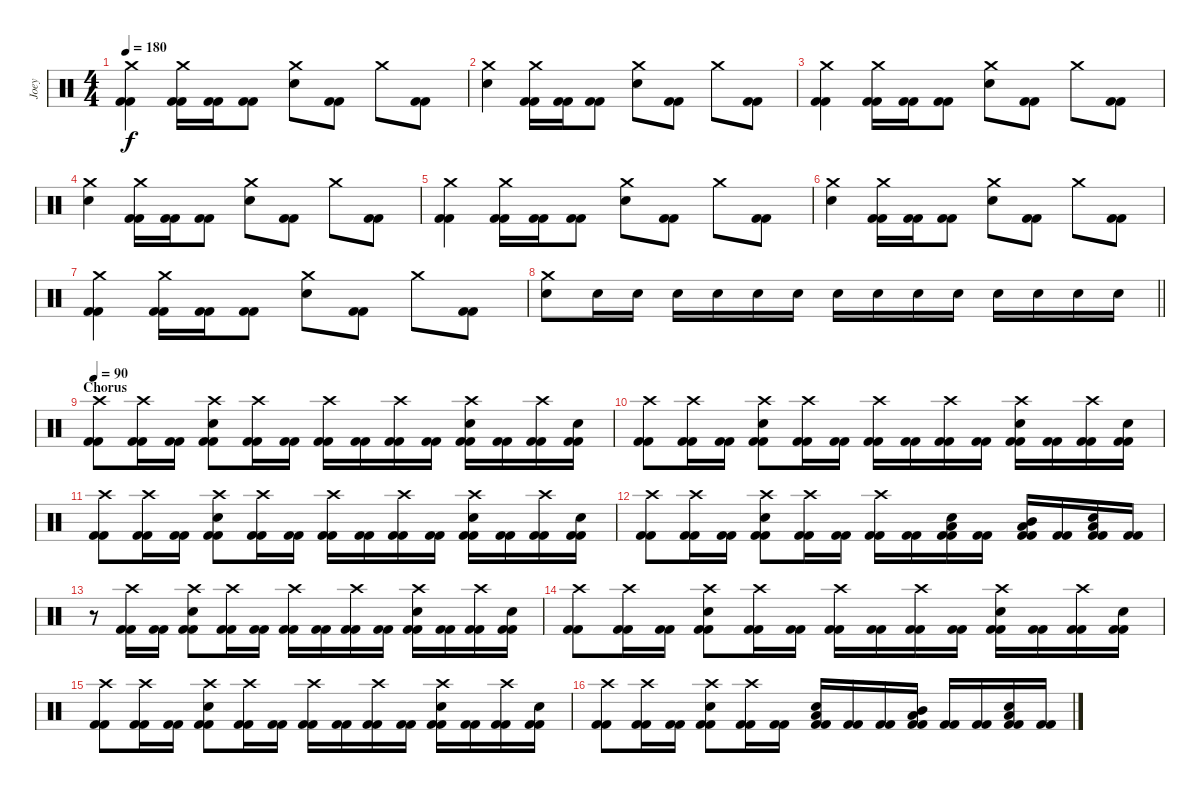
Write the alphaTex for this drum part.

\track ("Joey" "Joey") {instrument percussion}
\staff {score}
\articulation defaults
\ts (4 4)
\tempo 180
\clef neutral
\ks c
("Crash medium (hit)" "Kick (hit) 2" "Kick (hit) 2").4{dy f} ("Crash medium (hit)" "Kick (hit) 2" "Kick (hit) 2").16 ("Kick (hit) 2" "Kick (hit) 2").16 ("Kick (hit) 2" "Kick (hit) 2").8 ("Electric Snare (hit)" "Crash medium (hit)").8 ("Kick (hit) 2" "Kick (hit) 2").8 "Crash medium (hit)".8 ("Kick (hit) 2" "Kick (hit) 2").8 |
("Electric Snare (hit)" "Crash medium (hit)").4 ("Crash medium (hit)" "Kick (hit) 2" "Kick (hit) 2").16 ("Kick (hit) 2" "Kick (hit) 2").16 ("Kick (hit) 2" "Kick (hit) 2").8 ("Electric Snare (hit)" "Crash medium (hit)").8 ("Kick (hit) 2" "Kick (hit) 2").8 "Crash medium (hit)".8 ("Kick (hit) 2" "Kick (hit) 2").8 |
("Crash medium (hit)" "Kick (hit) 2" "Kick (hit) 2").4 ("Crash medium (hit)" "Kick (hit) 2" "Kick (hit) 2").16 ("Kick (hit) 2" "Kick (hit) 2").16 ("Kick (hit) 2" "Kick (hit) 2").8 ("Electric Snare (hit)" "Crash medium (hit)").8 ("Kick (hit) 2" "Kick (hit) 2").8 "Crash medium (hit)".8 ("Kick (hit) 2" "Kick (hit) 2").8 |
("Electric Snare (hit)" "Crash medium (hit)").4 ("Crash medium (hit)" "Kick (hit) 2" "Kick (hit) 2").16 ("Kick (hit) 2" "Kick (hit) 2").16 ("Kick (hit) 2" "Kick (hit) 2").8 ("Electric Snare (hit)" "Crash medium (hit)").8 ("Kick (hit) 2" "Kick (hit) 2").8 "Crash medium (hit)".8 ("Kick (hit) 2" "Kick (hit) 2").8 |
("Crash medium (hit)" "Kick (hit) 2" "Kick (hit) 2").4 ("Crash medium (hit)" "Kick (hit) 2" "Kick (hit) 2").16 ("Kick (hit) 2" "Kick (hit) 2").16 ("Kick (hit) 2" "Kick (hit) 2").8 ("Electric Snare (hit)" "Crash medium (hit)").8 ("Kick (hit) 2" "Kick (hit) 2").8 "Crash medium (hit)".8 ("Kick (hit) 2" "Kick (hit) 2").8 |
("Electric Snare (hit)" "Crash medium (hit)").4 ("Crash medium (hit)" "Kick (hit) 2" "Kick (hit) 2").16 ("Kick (hit) 2" "Kick (hit) 2").16 ("Kick (hit) 2" "Kick (hit) 2").8 ("Electric Snare (hit)" "Crash medium (hit)").8 ("Kick (hit) 2" "Kick (hit) 2").8 "Crash medium (hit)".8 ("Kick (hit) 2" "Kick (hit) 2").8 |
("Crash medium (hit)" "Kick (hit) 2" "Kick (hit) 2").4 ("Crash medium (hit)" "Kick (hit) 2" "Kick (hit) 2").16 ("Kick (hit) 2" "Kick (hit) 2").16 ("Kick (hit) 2" "Kick (hit) 2").8 ("Electric Snare (hit)" "Crash medium (hit)").8 ("Kick (hit) 2" "Kick (hit) 2").8 "Crash medium (hit)".8 ("Kick (hit) 2" "Kick (hit) 2").8 |
\barLineRight lightlight
("Electric Snare (hit)" "Crash medium (hit)").8 "Electric Snare (hit)".16 "Electric Snare (hit)".16 "Electric Snare (hit)".16 "Electric Snare (hit)".16 "Electric Snare (hit)".16 "Electric Snare (hit)".16 "Electric Snare (hit)".16 "Electric Snare (hit)".16 "Electric Snare (hit)".16 "Electric Snare (hit)".16 "Electric Snare (hit)".16 "Electric Snare (hit)".16 "Electric Snare (hit)".16 "Electric Snare (hit)".16 |
\section ("" "Chorus")
\tempo 90
("Crash high (hit)" "Kick (hit) 2" "Kick (hit) 2").8 ("Crash high (hit)" "Kick (hit) 2" "Kick (hit) 2").16 ("Kick (hit) 2" "Kick (hit) 2").16 ("Electric Snare (hit)" "Crash high (hit)" "Kick (hit) 2" "Kick (hit) 2").8 ("Crash high (hit)" "Kick (hit) 2" "Kick (hit) 2").16 ("Kick (hit) 2" "Kick (hit) 2").16 ("Crash high (hit)" "Kick (hit) 2" "Kick (hit) 2").16 ("Kick (hit) 2" "Kick (hit) 2").16 ("Crash high (hit)" "Kick (hit) 2" "Kick (hit) 2").16 ("Kick (hit) 2" "Kick (hit) 2").16 ("Electric Snare (hit)" "Crash high (hit)" "Kick (hit) 2" "Kick (hit) 2").16 ("Kick (hit) 2" "Kick (hit) 2").16 ("Crash high (hit)" "Kick (hit) 2" "Kick (hit) 2").16 ("Electric Snare (hit)" "Kick (hit) 2" "Kick (hit) 2").16 |
("Crash high (hit)" "Kick (hit) 2" "Kick (hit) 2").8 ("Crash high (hit)" "Kick (hit) 2" "Kick (hit) 2").16 ("Kick (hit) 2" "Kick (hit) 2").16 ("Electric Snare (hit)" "Crash high (hit)" "Kick (hit) 2" "Kick (hit) 2").8 ("Crash high (hit)" "Kick (hit) 2" "Kick (hit) 2").16 ("Kick (hit) 2" "Kick (hit) 2").16 ("Crash high (hit)" "Kick (hit) 2" "Kick (hit) 2").16 ("Kick (hit) 2" "Kick (hit) 2").16 ("Crash high (hit)" "Kick (hit) 2" "Kick (hit) 2").16 ("Kick (hit) 2" "Kick (hit) 2").16 ("Electric Snare (hit)" "Crash high (hit)" "Kick (hit) 2" "Kick (hit) 2").16 ("Kick (hit) 2" "Kick (hit) 2").16 ("Crash high (hit)" "Kick (hit) 2" "Kick (hit) 2").16 ("Electric Snare (hit)" "Kick (hit) 2" "Kick (hit) 2").16 |
("Crash high (hit)" "Kick (hit) 2" "Kick (hit) 2").8 ("Crash high (hit)" "Kick (hit) 2" "Kick (hit) 2").16 ("Kick (hit) 2" "Kick (hit) 2").16 ("Electric Snare (hit)" "Crash high (hit)" "Kick (hit) 2" "Kick (hit) 2").8 ("Crash high (hit)" "Kick (hit) 2" "Kick (hit) 2").16 ("Kick (hit) 2" "Kick (hit) 2").16 ("Crash high (hit)" "Kick (hit) 2" "Kick (hit) 2").16 ("Kick (hit) 2" "Kick (hit) 2").16 ("Crash high (hit)" "Kick (hit) 2" "Kick (hit) 2").16 ("Kick (hit) 2" "Kick (hit) 2").16 ("Electric Snare (hit)" "Crash high (hit)" "Kick (hit) 2" "Kick (hit) 2").16 ("Kick (hit) 2" "Kick (hit) 2").16 ("Crash high (hit)" "Kick (hit) 2" "Kick (hit) 2").16 ("Electric Snare (hit)" "Kick (hit) 2" "Kick (hit) 2").16 |
("Crash high (hit)" "Kick (hit) 2" "Kick (hit) 2").8 ("Crash high (hit)" "Kick (hit) 2" "Kick (hit) 2").16 ("Kick (hit) 2" "Kick (hit) 2").16 ("Electric Snare (hit)" "Crash high (hit)" "Kick (hit) 2" "Kick (hit) 2").8 ("Crash high (hit)" "Kick (hit) 2" "Kick (hit) 2").16 ("Kick (hit) 2" "Kick (hit) 2").16 ("Crash high (hit)" "Kick (hit) 2" "Kick (hit) 2").16 ("Kick (hit) 2" "Kick (hit) 2").16 ("Electric Snare (hit)" "Low Tom (hit)" "Kick (hit) 2" "Kick (hit) 2").16 ("Kick (hit) 2" "Kick (hit) 2").16 ("Low Tom (hit)" "Mid Tom (hit)" "Kick (hit) 2" "Kick (hit) 2").16 ("Kick (hit) 2" "Kick (hit) 2").16 ("Electric Snare (hit)" "Low Tom (hit)" "Kick (hit) 2" "Kick (hit) 2").16 ("Kick (hit) 2" "Kick (hit) 2").16 |
r.8 ("Crash high (hit)" "Kick (hit) 2" "Kick (hit) 2").16 ("Kick (hit) 2" "Kick (hit) 2").16 ("Electric Snare (hit)" "Crash high (hit)" "Kick (hit) 2" "Kick (hit) 2").8 ("Crash high (hit)" "Kick (hit) 2" "Kick (hit) 2").16 ("Kick (hit) 2" "Kick (hit) 2").16 ("Crash high (hit)" "Kick (hit) 2" "Kick (hit) 2").16 ("Kick (hit) 2" "Kick (hit) 2").16 ("Crash high (hit)" "Kick (hit) 2" "Kick (hit) 2").16 ("Kick (hit) 2" "Kick (hit) 2").16 ("Electric Snare (hit)" "Crash high (hit)" "Kick (hit) 2" "Kick (hit) 2").16 ("Kick (hit) 2" "Kick (hit) 2").16 ("Crash high (hit)" "Kick (hit) 2" "Kick (hit) 2").16 ("Electric Snare (hit)" "Kick (hit) 2" "Kick (hit) 2").16 |
("Crash high (hit)" "Kick (hit) 2" "Kick (hit) 2").8 ("Crash high (hit)" "Kick (hit) 2" "Kick (hit) 2").16 ("Kick (hit) 2" "Kick (hit) 2").16 ("Electric Snare (hit)" "Crash high (hit)" "Kick (hit) 2" "Kick (hit) 2").8 ("Crash high (hit)" "Kick (hit) 2" "Kick (hit) 2").16 ("Kick (hit) 2" "Kick (hit) 2").16 ("Crash high (hit)" "Kick (hit) 2" "Kick (hit) 2").16 ("Kick (hit) 2" "Kick (hit) 2").16 ("Crash high (hit)" "Kick (hit) 2" "Kick (hit) 2").16 ("Kick (hit) 2" "Kick (hit) 2").16 ("Electric Snare (hit)" "Crash high (hit)" "Kick (hit) 2" "Kick (hit) 2").16 ("Kick (hit) 2" "Kick (hit) 2").16 ("Crash high (hit)" "Kick (hit) 2" "Kick (hit) 2").16 ("Electric Snare (hit)" "Kick (hit) 2" "Kick (hit) 2").16 |
("Crash high (hit)" "Kick (hit) 2" "Kick (hit) 2").8 ("Crash high (hit)" "Kick (hit) 2" "Kick (hit) 2").16 ("Kick (hit) 2" "Kick (hit) 2").16 ("Electric Snare (hit)" "Crash high (hit)" "Kick (hit) 2" "Kick (hit) 2").8 ("Crash high (hit)" "Kick (hit) 2" "Kick (hit) 2").16 ("Kick (hit) 2" "Kick (hit) 2").16 ("Crash high (hit)" "Kick (hit) 2" "Kick (hit) 2").16 ("Kick (hit) 2" "Kick (hit) 2").16 ("Crash high (hit)" "Kick (hit) 2" "Kick (hit) 2").16 ("Kick (hit) 2" "Kick (hit) 2").16 ("Electric Snare (hit)" "Crash high (hit)" "Kick (hit) 2" "Kick (hit) 2").16 ("Kick (hit) 2" "Kick (hit) 2").16 ("Crash high (hit)" "Kick (hit) 2" "Kick (hit) 2").16 ("Electric Snare (hit)" "Kick (hit) 2" "Kick (hit) 2").16 |
("Crash high (hit)" "Kick (hit) 2" "Kick (hit) 2").8 ("Crash high (hit)" "Kick (hit) 2" "Kick (hit) 2").16 ("Kick (hit) 2" "Kick (hit) 2").16 ("Electric Snare (hit)" "Crash high (hit)" "Kick (hit) 2" "Kick (hit) 2").8 ("Crash high (hit)" "Kick (hit) 2" "Kick (hit) 2").16 ("Kick (hit) 2" "Kick (hit) 2").16 ("Electric Snare (hit)" "Low Tom (hit)" "Kick (hit) 2" "Kick (hit) 2").16 ("Kick (hit) 2" "Kick (hit) 2").16 ("Kick (hit) 2" "Kick (hit) 2").16 ("Low Tom (hit)" "Mid Tom (hit)" "Kick (hit) 2" "Kick (hit) 2").16 ("Kick (hit) 2" "Kick (hit) 2").16 ("Kick (hit) 2" "Kick (hit) 2").16 ("Electric Snare (hit)" "Low Tom (hit)" "Kick (hit) 2" "Kick (hit) 2").16 ("Kick (hit) 2" "Kick (hit) 2").16
